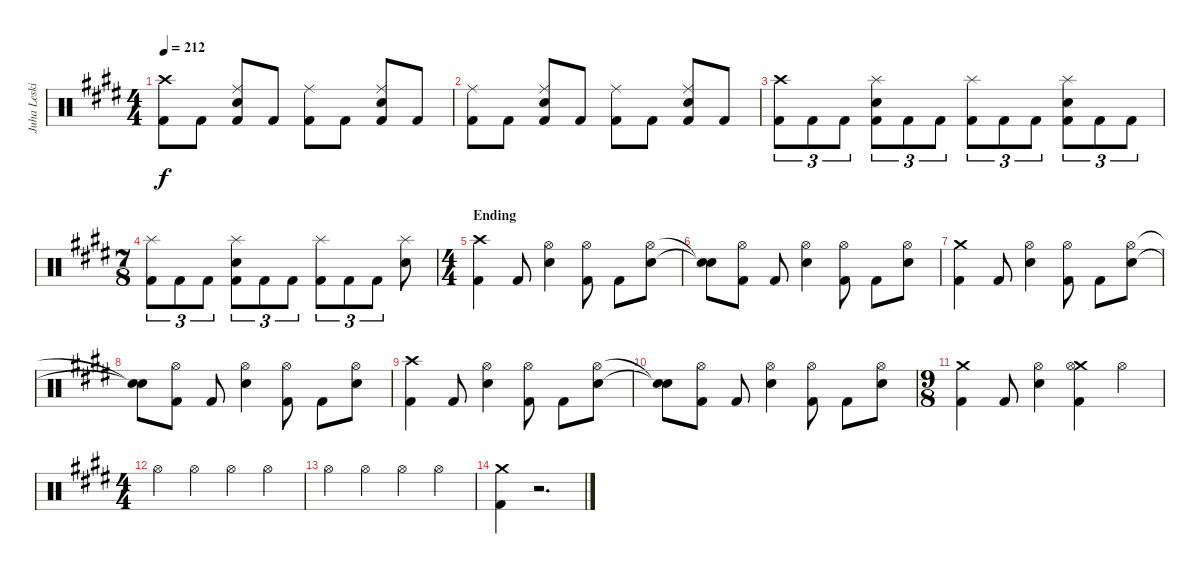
\track ("Juha Leskinen - Drums" "Juha Leski") {instrument percussion}
\staff {score}
\articulation defaults
\ts (4 4)
\tempo 212
\clef neutral
\ks c#minor
("Crash high (hit)" "Kick (hit) 2").8{dy f} "Kick (hit) 2".8 ("Ride (middle)" "Electric Snare (hit)" "Kick (hit) 2").8 "Kick (hit) 2".8 ("Ride (middle)" "Kick (hit) 2").8 "Kick (hit) 2".8 ("Ride (middle)" "Electric Snare (hit)" "Kick (hit) 2").8 "Kick (hit) 2".8 |
("Ride (middle)" "Kick (hit) 2").8 "Kick (hit) 2".8 ("Ride (middle)" "Electric Snare (hit)" "Kick (hit) 2").8 "Kick (hit) 2".8 ("Ride (middle)" "Kick (hit) 2").8 "Kick (hit) 2".8 ("Ride (middle)" "Electric Snare (hit)" "Kick (hit) 2").8 "Kick (hit) 2".8 |
("Crash high (hit)" "Kick (hit) 2").8{tu (3 2)} "Kick (hit) 2".8{tu (3 2)} "Kick (hit) 2".8{tu (3 2)} ("Splash (hit)" "Electric Snare (hit)" "Kick (hit) 2").8{tu (3 2)} "Kick (hit) 2".8{tu (3 2)} "Kick (hit) 2".8{tu (3 2)} ("Splash (hit)" "Kick (hit) 2").8{tu (3 2)} "Kick (hit) 2".8{tu (3 2)} "Kick (hit) 2".8{tu (3 2)} ("Splash (hit)" "Electric Snare (hit)" "Kick (hit) 2").8{tu (3 2)} "Kick (hit) 2".8{tu (3 2)} "Kick (hit) 2".8{tu (3 2)} |
\ts (7 8)
("Splash (hit)" "Kick (hit) 2").8{tu (3 2)} "Kick (hit) 2".8{tu (3 2)} "Kick (hit) 2".8{tu (3 2)} ("Splash (hit)" "Electric Snare (hit)" "Kick (hit) 2").8{tu (3 2)} "Kick (hit) 2".8{tu (3 2)} "Kick (hit) 2".8{tu (3 2)} ("Splash (hit)" "Kick (hit) 2").8{tu (3 2)} "Kick (hit) 2".8{tu (3 2)} "Kick (hit) 2".8{tu (3 2)} ("Splash (hit)" "Electric Snare (hit)").8 |
\ts (4 4)
\section ("" "Ending")
("Crash high (hit)" "Kick (hit) 2").4 "Kick (hit) 2".8 ("Hi-Hat (open)" "Electric Snare (hit)").4 ("Hi-Hat (open)" "Kick (hit) 2").8 "Kick (hit) 2".8 ("Hi-Hat (open)" "Electric Snare (hit)").8 |
("Snare (hit)"{t} "Snare (hit)"{t}).8 ("Hi-Hat (open)" "Kick (hit) 2").8 "Kick (hit) 2".8 ("Hi-Hat (open)" "Electric Snare (hit)").4 ("Hi-Hat (open)" "Kick (hit) 2").8 "Kick (hit) 2".8 ("Hi-Hat (open)" "Electric Snare (hit)").8 |
("Crash medium (hit)" "Kick (hit) 2").4 "Kick (hit) 2".8 ("Hi-Hat (open)" "Electric Snare (hit)").4 ("Hi-Hat (open)" "Kick (hit) 2").8 "Kick (hit) 2".8 ("Hi-Hat (open)" "Electric Snare (hit)").8 |
("Snare (hit)"{t} "Snare (hit)"{t}).8 ("Hi-Hat (open)" "Kick (hit) 2").8 "Kick (hit) 2".8 ("Hi-Hat (open)" "Electric Snare (hit)").4 ("Hi-Hat (open)" "Kick (hit) 2").8 "Kick (hit) 2".8 ("Hi-Hat (open)" "Electric Snare (hit)").8 |
("Crash high (hit)" "Kick (hit) 2").4 "Kick (hit) 2".8 ("Hi-Hat (open)" "Electric Snare (hit)").4 ("Hi-Hat (open)" "Kick (hit) 2").8 "Kick (hit) 2".8 ("Hi-Hat (open)" "Electric Snare (hit)").8 |
("Snare (hit)"{t} "Snare (hit)"{t}).8 ("Hi-Hat (open)" "Kick (hit) 2").8 "Kick (hit) 2".8 ("Hi-Hat (open)" "Electric Snare (hit)").4 ("Hi-Hat (open)" "Kick (hit) 2").8 "Kick (hit) 2".8 ("Hi-Hat (open)" "Electric Snare (hit)").8 |
\ts (9 8)
("Crash medium (hit)" "Kick (hit) 2").4 "Kick (hit) 2".8 ("Hi-Hat (open)" "Electric Snare (hit)").4 ("Crash medium (hit)" "Hi-Hat (open)" "Kick (hit) 2").4 "Hi-Hat (open)".4 |
\ts (4 4)
"Hi-Hat (open)".4 "Hi-Hat (open)".4 "Hi-Hat (open)".4 "Hi-Hat (open)".4 |
"Hi-Hat (open)".4 "Hi-Hat (open)".4 "Hi-Hat (open)".4 "Hi-Hat (open)".4 |
("Crash medium (hit)" "Kick (hit) 2").4 r.2{d}
